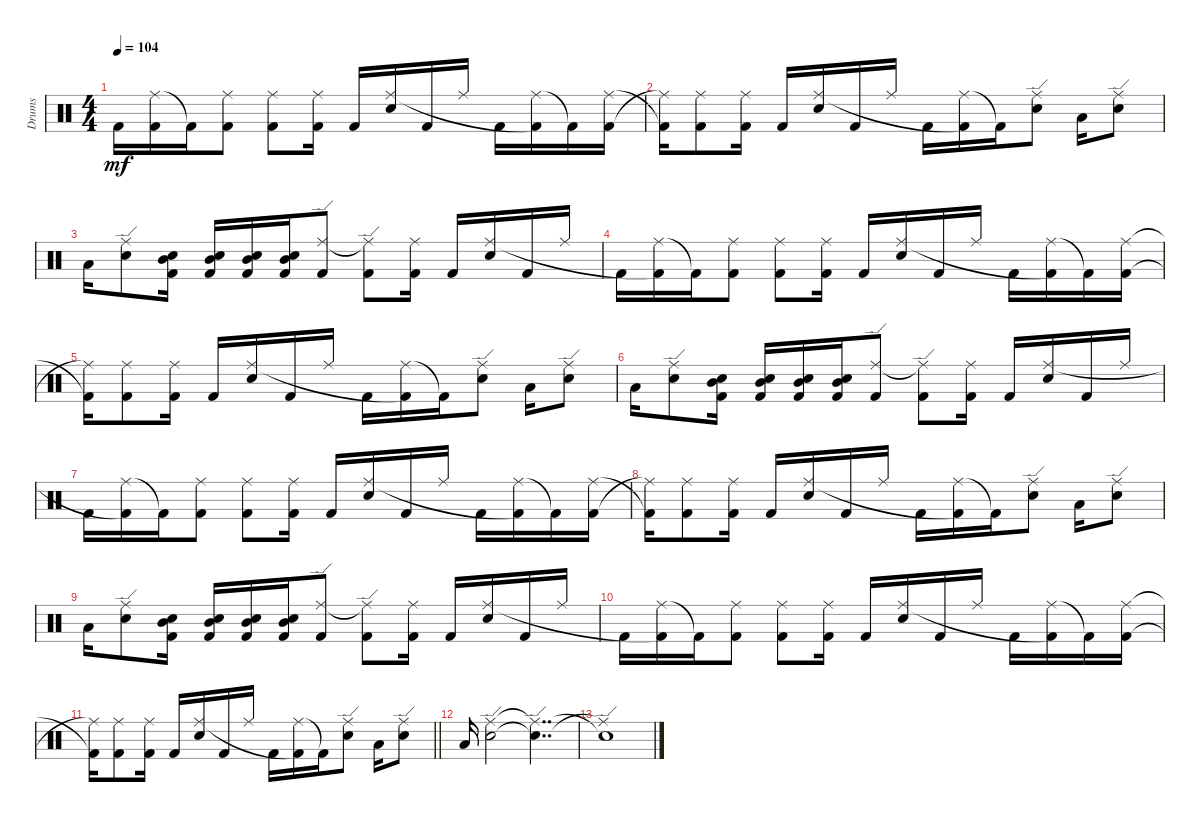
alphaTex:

\defaultSystemsLayout 4
\bracketExtendMode groupsimilarinstruments
\otherSystemsTrackNameOrientation horizontal
\track ("Martin Lopez" "Drums") {instrument percussion}
\staff {score}
\articulation defaults
\ts (4 4)
\tempo 104
\clef neutral
\ks c "Kick (hit) 2".16{dy mf beam Down}
("Ride (middle)" "Kick (hit) 2"{t}).16{beam Down} "Kick (hit) 2"{t}.16{beam Down} ("Kick (hit) 2" "Ride (middle)").8{beam Down} ("Kick (hit) 2" "Ride (middle)").8{beam Down} ("Kick (hit) 2" "Ride (middle)").16{beam Down} "Kick (hit) 2".16{beam Up} ("Snare (hit) 2" "Ride (middle)").16{beam Up} "Kick (hit) 2".16{beam Up} "Ride (middle)".16{beam Up} "Kick (hit) 2".16{beam Down} ("Ride (middle)" "Kick (hit) 2"{t}).16{beam Down} "Kick (hit) 2"{t}.16{beam Down} ("Kick (hit) 2" "Ride (middle)").16{beam Down} |
("Ride (middle)"{t} "Kick (hit) 2"{t}).16{beam Down} ("Kick (hit) 2" "Ride (middle)").8{beam Down} ("Kick (hit) 2" "Ride (middle)").16{beam Down} "Kick (hit) 2".16{beam Up} ("Snare (hit) 2" "Ride (middle)").16{beam Up} "Kick (hit) 2".16{beam Up} "Ride (middle)".16{beam Up} "Kick (hit) 2".16{beam Down} ("Ride (middle)" "Kick (hit) 2"{t}).16{beam Down} "Kick (hit) 2"{t}.16{beam Down} ("Snare (hit) 2" "Ride (edge)").8{beam Down} "Low Tom (hit)".16{beam Down} ("Snare (hit) 2" "Ride (edge)").8{beam Down} |
"Low Tom (hit)".16{beam Down} ("Snare (hit) 2" "Ride (edge)").8{beam Down} ("Kick (hit) 2" "Snare (hit) 2" "Mid Tom (hit)").16{beam Down} ("Kick (hit) 2" "Snare (hit) 2" "Mid Tom (hit)").16{beam Up} ("Kick (hit) 2" "Snare (hit) 2" "Mid Tom (hit)").16{beam Up} ("Kick (hit) 2" "Snare (hit) 2" "Mid Tom (hit)").16{beam Up} ("Kick (hit) 2" "Ride (edge)").8{beam Up} ("Kick (hit) 2" "Ride (edge)"{t}).8{beam Down} ("Kick (hit) 2" "Ride (middle)").16{beam Down} "Kick (hit) 2".16{beam Up} ("Snare (hit) 2" "Ride (middle)").16{beam Up} "Kick (hit) 2".16{beam Up} "Ride (middle)".16{beam Up} |
"Kick (hit) 2".16{beam Down} ("Ride (middle)" "Kick (hit) 2"{t}).16{beam Down} "Kick (hit) 2"{t}.16{beam Down} ("Kick (hit) 2" "Ride (middle)").8{beam Down} ("Kick (hit) 2" "Ride (middle)").8{beam Down} ("Kick (hit) 2" "Ride (middle)").16{beam Down} "Kick (hit) 2".16{beam Up} ("Snare (hit) 2" "Ride (middle)").16{beam Up} "Kick (hit) 2".16{beam Up} "Ride (middle)".16{beam Up} "Kick (hit) 2".16{beam Down} ("Ride (middle)" "Kick (hit) 2"{t}).16{beam Down} "Kick (hit) 2"{t}.16{beam Down} ("Kick (hit) 2" "Ride (middle)").16{beam Down} |
("Ride (middle)"{t} "Kick (hit) 2"{t}).16{beam Down} ("Kick (hit) 2" "Ride (middle)").8{beam Down} ("Kick (hit) 2" "Ride (middle)").16{beam Down} "Kick (hit) 2".16{beam Up} ("Snare (hit) 2" "Ride (middle)").16{beam Up} "Kick (hit) 2".16{beam Up} "Ride (middle)".16{beam Up} "Kick (hit) 2".16{beam Down} ("Ride (middle)" "Kick (hit) 2"{t}).16{beam Down} "Kick (hit) 2"{t}.16{beam Down} ("Snare (hit) 2" "Ride (edge)").8{beam Down} "Low Tom (hit)".16{beam Down} ("Snare (hit) 2" "Ride (edge)").8{beam Down} |
"Low Tom (hit)".16{beam Down} ("Snare (hit) 2" "Ride (edge)").8{beam Down} ("Kick (hit) 2" "Snare (hit) 2" "Mid Tom (hit)").16{beam Down} ("Kick (hit) 2" "Snare (hit) 2" "Mid Tom (hit)").16{beam Up} ("Kick (hit) 2" "Snare (hit) 2" "Mid Tom (hit)").16{beam Up} ("Kick (hit) 2" "Snare (hit) 2" "Mid Tom (hit)").16{beam Up} ("Kick (hit) 2" "Ride (edge)").8{beam Up} ("Kick (hit) 2" "Ride (edge)"{t}).8{beam Down} ("Kick (hit) 2" "Ride (middle)").16{beam Down} "Kick (hit) 2".16{beam Up} ("Snare (hit) 2" "Ride (middle)").16{beam Up} "Kick (hit) 2".16{beam Up} "Ride (middle)".16{beam Up} |
"Kick (hit) 2".16{beam Down} ("Ride (middle)" "Kick (hit) 2"{t}).16{beam Down} "Kick (hit) 2"{t}.16{beam Down} ("Kick (hit) 2" "Ride (middle)").8{beam Down} ("Kick (hit) 2" "Ride (middle)").8{beam Down} ("Kick (hit) 2" "Ride (middle)").16{beam Down} "Kick (hit) 2".16{beam Up} ("Snare (hit) 2" "Ride (middle)").16{beam Up} "Kick (hit) 2".16{beam Up} "Ride (middle)".16{beam Up} "Kick (hit) 2".16{beam Down} ("Ride (middle)" "Kick (hit) 2"{t}).16{beam Down} "Kick (hit) 2"{t}.16{beam Down} ("Kick (hit) 2" "Ride (middle)").16{beam Down} |
("Ride (middle)"{t} "Kick (hit) 2"{t}).16{beam Down} ("Kick (hit) 2" "Ride (middle)").8{beam Down} ("Kick (hit) 2" "Ride (middle)").16{beam Down} "Kick (hit) 2".16{beam Up} ("Snare (hit) 2" "Ride (middle)").16{beam Up} "Kick (hit) 2".16{beam Up} "Ride (middle)".16{beam Up} "Kick (hit) 2".16{beam Down} ("Ride (middle)" "Kick (hit) 2"{t}).16{beam Down} "Kick (hit) 2"{t}.16{beam Down} ("Snare (hit) 2" "Ride (edge)").8{beam Down} "Low Tom (hit)".16{beam Down} ("Snare (hit) 2" "Ride (edge)").8{beam Down} |
"Low Tom (hit)".16{beam Down} ("Snare (hit) 2" "Ride (edge)").8{beam Down} ("Kick (hit) 2" "Snare (hit) 2" "Mid Tom (hit)").16{beam Down} ("Kick (hit) 2" "Snare (hit) 2" "Mid Tom (hit)").16{beam Up} ("Kick (hit) 2" "Snare (hit) 2" "Mid Tom (hit)").16{beam Up} ("Kick (hit) 2" "Snare (hit) 2" "Mid Tom (hit)").16{beam Up} ("Kick (hit) 2" "Ride (edge)").8{beam Up} ("Kick (hit) 2" "Ride (edge)"{t}).8{beam Down} ("Kick (hit) 2" "Ride (middle)").16{beam Down} "Kick (hit) 2".16{beam Up} ("Snare (hit) 2" "Ride (middle)").16{beam Up} "Kick (hit) 2".16{beam Up} "Ride (middle)".16{beam Up} |
"Kick (hit) 2".16{beam Down} ("Ride (middle)" "Kick (hit) 2"{t}).16{beam Down} "Kick (hit) 2"{t}.16{beam Down} ("Kick (hit) 2" "Ride (middle)").8{beam Down} ("Kick (hit) 2" "Ride (middle)").8{beam Down} ("Kick (hit) 2" "Ride (middle)").16{beam Down} "Kick (hit) 2".16{beam Up} ("Snare (hit) 2" "Ride (middle)").16{beam Up} "Kick (hit) 2".16{beam Up} "Ride (middle)".16{beam Up} "Kick (hit) 2".16{beam Down} ("Ride (middle)" "Kick (hit) 2"{t}).16{beam Down} "Kick (hit) 2"{t}.16{beam Down} ("Kick (hit) 2" "Ride (middle)").16{beam Down} |
\barLineRight lightlight
("Ride (middle)"{t} "Kick (hit) 2"{t}).16{beam Down} ("Kick (hit) 2" "Ride (middle)").8{beam Down} ("Kick (hit) 2" "Ride (middle)").16{beam Down} "Kick (hit) 2".16{beam Up} ("Snare (hit) 2" "Ride (middle)").16{beam Up} "Kick (hit) 2".16{beam Up} "Ride (middle)".16{beam Up} "Kick (hit) 2".16{beam Down} ("Ride (middle)" "Kick (hit) 2"{t}).16{beam Down} "Kick (hit) 2"{t}.16{beam Down} ("Snare (hit) 2" "Ride (edge)").8{beam Down} "Low Tom (hit)".16{beam Down} ("Snare (hit) 2" "Ride (edge)").8{beam Down} |
"Low Tom (hit)".16{beam Up} ("Snare (hit) 2" "Ride (edge)").2{beam Down} ("Snare (hit) 2"{t} "Ride (edge)"{t}).4{dd beam Down} |
("Ride (edge)"{t} "Snare (hit) 2"{t}).1{beam Down}
